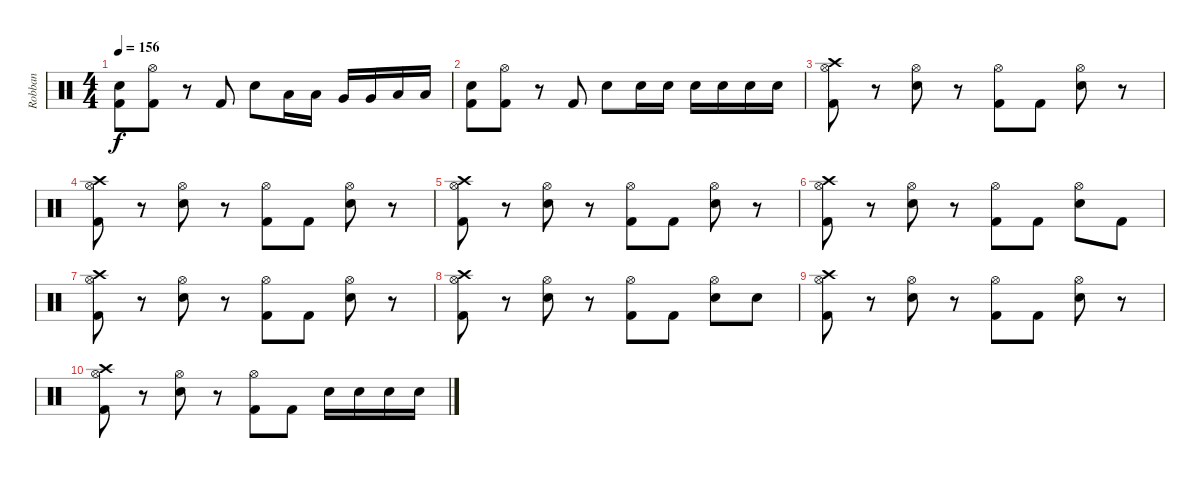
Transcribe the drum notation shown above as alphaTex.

\track ("Robban" "Robban") {instrument percussion}
\staff {score}
\articulation defaults
\ts (4 4)
\tempo 156
\clef neutral
\ks c
("Electric Snare (hit)" "Kick (hit) 2").8{dy f} ("Hi-Hat (open)" "Kick (hit) 2").8 r.8 "Kick (hit) 2".8 "Electric Snare (hit)".8 "Low Tom (hit)".16 "Low Tom (hit)".16 "Very Low Tom (hit)".16 "Very Low Tom (hit)".16 "Low Floor Tom (hit)".16 "Low Floor Tom (hit)".16 |
("Electric Snare (hit)" "Kick (hit) 2").8 ("Hi-Hat (open)" "Kick (hit) 2").8 r.8 "Kick (hit) 2".8 "Electric Snare (hit)".8 "Electric Snare (hit)".16 "Electric Snare (hit)".16 "Electric Snare (hit)".16 "Electric Snare (hit)".16 "Electric Snare (hit)".16 "Electric Snare (hit)".16 |
("Crash high (hit)" "Hi-Hat (open)" "Kick (hit) 2").8 r.8 ("Hi-Hat (open)" "Electric Snare (hit)").8 r.8 ("Hi-Hat (open)" "Kick (hit) 2").8 "Kick (hit) 2".8 ("Hi-Hat (open)" "Electric Snare (hit)").8 r.8 |
("Crash high (hit)" "Hi-Hat (open)" "Kick (hit) 2").8 r.8 ("Hi-Hat (open)" "Electric Snare (hit)").8 r.8 ("Hi-Hat (open)" "Kick (hit) 2").8 "Kick (hit) 2".8 ("Hi-Hat (open)" "Electric Snare (hit)").8 r.8 |
("Crash high (hit)" "Hi-Hat (open)" "Kick (hit) 2").8 r.8 ("Hi-Hat (open)" "Electric Snare (hit)").8 r.8 ("Hi-Hat (open)" "Kick (hit) 2").8 "Kick (hit) 2".8 ("Hi-Hat (open)" "Electric Snare (hit)").8 r.8 |
("Crash high (hit)" "Hi-Hat (open)" "Kick (hit) 2").8 r.8 ("Hi-Hat (open)" "Electric Snare (hit)").8 r.8 ("Hi-Hat (open)" "Kick (hit) 2").8 "Kick (hit) 2".8 ("Hi-Hat (open)" "Electric Snare (hit)").8 "Kick (hit) 2".8 |
("Crash high (hit)" "Hi-Hat (open)" "Kick (hit) 2").8 r.8 ("Hi-Hat (open)" "Electric Snare (hit)").8 r.8 ("Hi-Hat (open)" "Kick (hit) 2").8 "Kick (hit) 2".8 ("Hi-Hat (open)" "Electric Snare (hit)").8 r.8 |
("Crash high (hit)" "Hi-Hat (open)" "Kick (hit) 2").8 r.8 ("Hi-Hat (open)" "Electric Snare (hit)").8 r.8 ("Hi-Hat (open)" "Kick (hit) 2").8 "Kick (hit) 2".8 ("Hi-Hat (open)" "Electric Snare (hit)").8 "Electric Snare (hit)".8 |
("Crash high (hit)" "Hi-Hat (open)" "Kick (hit) 2").8 r.8 ("Hi-Hat (open)" "Electric Snare (hit)").8 r.8 ("Hi-Hat (open)" "Kick (hit) 2").8 "Kick (hit) 2".8 ("Hi-Hat (open)" "Electric Snare (hit)").8 r.8 |
("Crash high (hit)" "Hi-Hat (open)" "Kick (hit) 2").8 r.8 ("Hi-Hat (open)" "Electric Snare (hit)").8 r.8 ("Hi-Hat (open)" "Kick (hit) 2").8 "Kick (hit) 2".8 "Electric Snare (hit)".16 "Electric Snare (hit)".16 "Electric Snare (hit)".16 "Electric Snare (hit)".16
